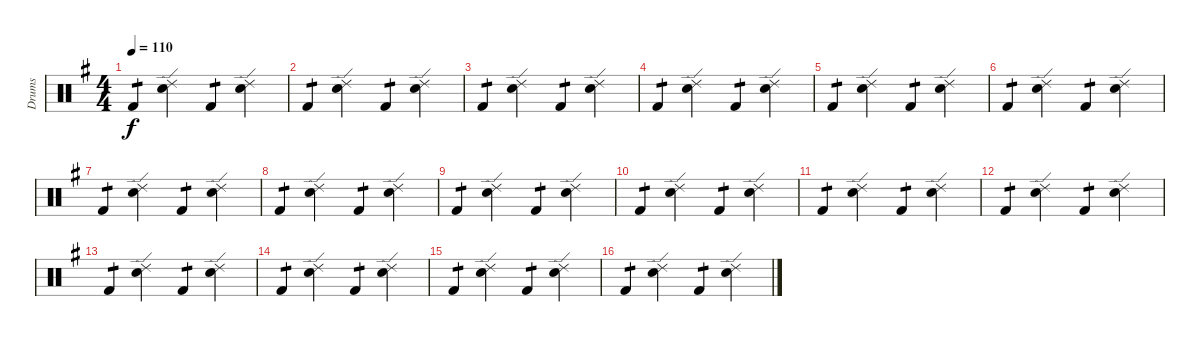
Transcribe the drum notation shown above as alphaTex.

\track ("Drums" "Drums") {instrument percussion}
\staff {score}
\articulation defaults
\ts (4 4)
\tempo 110
\clef neutral
\ks g "Kick (hit) 2".4{tp 1 dy f}
("Ride (edge) 2" "Snare (hit) 2").4 "Kick (hit) 2".4{tp 1} ("Ride (edge) 2" "Snare (hit) 2").4 |
"Kick (hit) 2".4{tp 1} ("Ride (edge) 2" "Snare (hit) 2").4 "Kick (hit) 2".4{tp 1} ("Ride (edge) 2" "Snare (hit) 2").4 |
"Kick (hit) 2".4{tp 1} ("Ride (edge) 2" "Snare (hit) 2").4 "Kick (hit) 2".4{tp 1} ("Ride (edge) 2" "Snare (hit) 2").4 |
"Kick (hit) 2".4{tp 1} ("Ride (edge) 2" "Snare (hit) 2").4 "Kick (hit) 2".4{tp 1} ("Ride (edge) 2" "Snare (hit) 2").4 |
"Kick (hit) 2".4{tp 1} ("Ride (edge) 2" "Snare (hit) 2").4 "Kick (hit) 2".4{tp 1} ("Ride (edge) 2" "Snare (hit) 2").4 |
"Kick (hit) 2".4{tp 1} ("Ride (edge) 2" "Snare (hit) 2").4 "Kick (hit) 2".4{tp 1} ("Ride (edge) 2" "Snare (hit) 2").4 |
"Kick (hit) 2".4{tp 1} ("Ride (edge) 2" "Snare (hit) 2").4 "Kick (hit) 2".4{tp 1} ("Ride (edge) 2" "Snare (hit) 2").4 |
"Kick (hit) 2".4{tp 1} ("Ride (edge) 2" "Snare (hit) 2").4 "Kick (hit) 2".4{tp 1} ("Ride (edge) 2" "Snare (hit) 2").4 |
"Kick (hit) 2".4{tp 1} ("Ride (edge) 2" "Snare (hit) 2").4 "Kick (hit) 2".4{tp 1} ("Ride (edge) 2" "Snare (hit) 2").4 |
"Kick (hit) 2".4{tp 1} ("Ride (edge) 2" "Snare (hit) 2").4 "Kick (hit) 2".4{tp 1} ("Ride (edge) 2" "Snare (hit) 2").4 |
"Kick (hit) 2".4{tp 1} ("Ride (edge) 2" "Snare (hit) 2").4 "Kick (hit) 2".4{tp 1} ("Ride (edge) 2" "Snare (hit) 2").4 |
"Kick (hit) 2".4{tp 1} ("Ride (edge) 2" "Snare (hit) 2").4 "Kick (hit) 2".4{tp 1} ("Ride (edge) 2" "Snare (hit) 2").4 |
"Kick (hit) 2".4{tp 1} ("Ride (edge) 2" "Snare (hit) 2").4 "Kick (hit) 2".4{tp 1} ("Ride (edge) 2" "Snare (hit) 2").4 |
"Kick (hit) 2".4{tp 1} ("Ride (edge) 2" "Snare (hit) 2").4 "Kick (hit) 2".4{tp 1} ("Ride (edge) 2" "Snare (hit) 2").4 |
"Kick (hit) 2".4{tp 1} ("Ride (edge) 2" "Snare (hit) 2").4 "Kick (hit) 2".4{tp 1} ("Ride (edge) 2" "Snare (hit) 2").4 |
"Kick (hit) 2".4{tp 1} ("Ride (edge) 2" "Snare (hit) 2").4 "Kick (hit) 2".4{tp 1} ("Ride (edge) 2" "Snare (hit) 2").4
